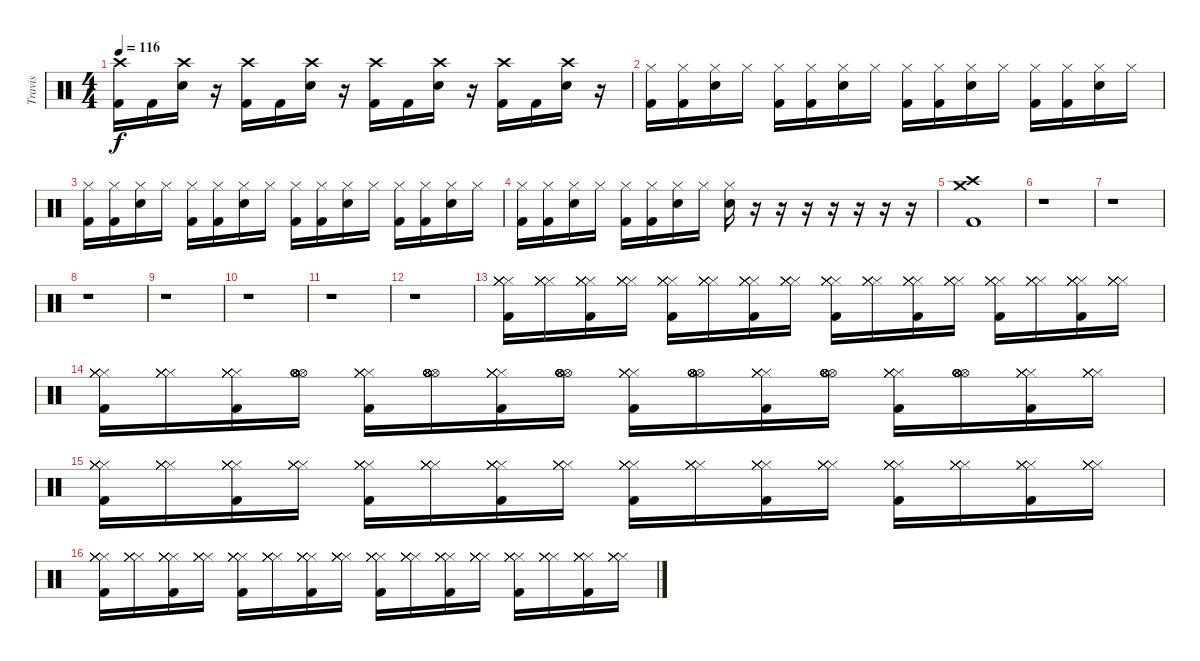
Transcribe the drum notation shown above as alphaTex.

\track ("Travis" "Travis") {instrument percussion}
\staff {score}
\articulation defaults
\ts (4 4)
\tempo 116
\clef neutral
\ks c
("Crash high (hit)" "Kick (hit) 2").16{dy f} "Kick (hit) 2".16 ("Crash high (hit)" "Snare (hit) 2").16 r.16 ("Crash high (hit)" "Kick (hit) 2").16 "Kick (hit) 2".16 ("Crash high (hit)" "Snare (hit) 2").16 r.16 ("Crash high (hit)" "Kick (hit) 2").16 "Kick (hit) 2".16 ("Crash high (hit)" "Snare (hit) 2").16 r.16 ("Crash high (hit)" "Kick (hit) 2").16 "Kick (hit) 2".16 ("Crash high (hit)" "Snare (hit) 2").16 r.16 |
("Hi-Hat (closed)" "Kick (hit) 2").16 ("Hi-Hat (closed)" "Kick (hit) 2").16 ("Hi-Hat (closed)" "Snare (hit) 2").16 "Hi-Hat (closed)".16 ("Hi-Hat (closed)" "Kick (hit) 2").16 ("Hi-Hat (closed)" "Kick (hit) 2").16 ("Hi-Hat (closed)" "Snare (hit) 2").16 "Hi-Hat (closed)".16 ("Hi-Hat (closed)" "Kick (hit) 2").16 ("Hi-Hat (closed)" "Kick (hit) 2").16 ("Hi-Hat (closed)" "Snare (hit) 2").16 "Hi-Hat (closed)".16 ("Hi-Hat (closed)" "Kick (hit) 2").16 ("Hi-Hat (closed)" "Kick (hit) 2").16 ("Hi-Hat (closed)" "Snare (hit) 2").16 "Hi-Hat (closed)".16 |
("Hi-Hat (closed)" "Kick (hit) 2").16 ("Hi-Hat (closed)" "Kick (hit) 2").16 ("Hi-Hat (closed)" "Snare (hit) 2").16 "Hi-Hat (closed)".16 ("Hi-Hat (closed)" "Kick (hit) 2").16 ("Hi-Hat (closed)" "Kick (hit) 2").16 ("Hi-Hat (closed)" "Snare (hit) 2").16 "Hi-Hat (closed)".16 ("Hi-Hat (closed)" "Kick (hit) 2").16 ("Hi-Hat (closed)" "Kick (hit) 2").16 ("Hi-Hat (closed)" "Snare (hit) 2").16 "Hi-Hat (closed)".16 ("Hi-Hat (closed)" "Kick (hit) 2").16 ("Hi-Hat (closed)" "Kick (hit) 2").16 ("Hi-Hat (closed)" "Snare (hit) 2").16 "Hi-Hat (closed)".16 |
("Hi-Hat (closed)" "Kick (hit) 2").16 ("Hi-Hat (closed)" "Kick (hit) 2").16 ("Hi-Hat (closed)" "Snare (hit) 2").16 "Hi-Hat (closed)".16 ("Hi-Hat (closed)" "Kick (hit) 2").16 ("Hi-Hat (closed)" "Kick (hit) 2").16 ("Hi-Hat (closed)" "Snare (hit) 2").16 "Hi-Hat (closed)".16 ("Hi-Hat (closed)" "Snare (hit) 2").16 r.16 r.16 r.16 r.16 r.16 r.16 r.16 |
("Crash high (hit)" "Crash medium (hit)" "Kick (hit) 2").1 |
r.1 |
r.1 |
r.1 |
r.1 |
r.1 |
r.1 |
r.1 |
("Hi-Hat (closed)" "Kick (hit) 2" "Hi-Hat (closed)" "Hi-Hat (closed)" "Hi-Hat (closed)" "Hi-Hat (closed)").16 ("Hi-Hat (closed)" "Hi-Hat (closed)" "Hi-Hat (closed)" "Hi-Hat (closed)" "Hi-Hat (closed)").16 ("Hi-Hat (closed)" "Kick (hit) 2" "Hi-Hat (closed)" "Hi-Hat (closed)" "Hi-Hat (closed)" "Hi-Hat (closed)").16 ("Hi-Hat (closed)" "Hi-Hat (closed)" "Hi-Hat (closed)" "Hi-Hat (closed)" "Hi-Hat (closed)").16 ("Hi-Hat (closed)" "Kick (hit) 2" "Hi-Hat (closed)" "Hi-Hat (closed)" "Hi-Hat (closed)" "Hi-Hat (closed)").16 ("Hi-Hat (closed)" "Hi-Hat (closed)" "Hi-Hat (closed)" "Hi-Hat (closed)" "Hi-Hat (closed)").16 ("Hi-Hat (closed)" "Kick (hit) 2" "Hi-Hat (closed)" "Hi-Hat (closed)" "Hi-Hat (closed)" "Hi-Hat (closed)").16 ("Hi-Hat (closed)" "Hi-Hat (closed)" "Hi-Hat (closed)" "Hi-Hat (closed)" "Hi-Hat (closed)").16 ("Hi-Hat (closed)" "Kick (hit) 2" "Hi-Hat (closed)" "Hi-Hat (closed)" "Hi-Hat (closed)" "Hi-Hat (closed)").16 ("Hi-Hat (closed)" "Hi-Hat (closed)" "Hi-Hat (closed)" "Hi-Hat (closed)" "Hi-Hat (closed)").16 ("Hi-Hat (closed)" "Kick (hit) 2" "Hi-Hat (closed)" "Hi-Hat (closed)" "Hi-Hat (closed)" "Hi-Hat (closed)").16 ("Hi-Hat (closed)" "Hi-Hat (closed)" "Hi-Hat (closed)" "Hi-Hat (closed)" "Hi-Hat (closed)").16 ("Hi-Hat (closed)" "Kick (hit) 2" "Hi-Hat (closed)" "Hi-Hat (closed)" "Hi-Hat (closed)" "Hi-Hat (closed)").16 ("Hi-Hat (closed)" "Hi-Hat (closed)" "Hi-Hat (closed)" "Hi-Hat (closed)" "Hi-Hat (closed)").16 ("Hi-Hat (closed)" "Kick (hit) 2" "Hi-Hat (closed)" "Hi-Hat (closed)" "Hi-Hat (closed)" "Hi-Hat (closed)").16 ("Hi-Hat (closed)" "Hi-Hat (closed)" "Hi-Hat (closed)" "Hi-Hat (closed)" "Hi-Hat (closed)").16 |
("Hi-Hat (closed)" "Kick (hit) 2" "Hi-Hat (closed)" "Hi-Hat (closed)" "Hi-Hat (closed)" "Hi-Hat (closed)").16 ("Hi-Hat (closed)" "Hi-Hat (closed)" "Hi-Hat (closed)" "Hi-Hat (closed)" "Hi-Hat (closed)").16 ("Hi-Hat (closed)" "Kick (hit) 2" "Hi-Hat (closed)" "Hi-Hat (closed)" "Hi-Hat (closed)" "Hi-Hat (closed)").16 ("Hi-Hat (open)" "Hi-Hat (open)" "Hi-Hat (open)" "Hi-Hat (open)" "Hi-Hat (open)" "Hi-Hat (open)").16 ("Hi-Hat (closed)" "Kick (hit) 2" "Hi-Hat (closed)" "Hi-Hat (closed)" "Hi-Hat (closed)" "Hi-Hat (closed)").16 ("Hi-Hat (open)" "Hi-Hat (open)" "Hi-Hat (open)" "Hi-Hat (open)" "Hi-Hat (open)" "Hi-Hat (open)").16 ("Hi-Hat (closed)" "Kick (hit) 2" "Hi-Hat (closed)" "Hi-Hat (closed)" "Hi-Hat (closed)" "Hi-Hat (closed)").16 ("Hi-Hat (open)" "Hi-Hat (open)" "Hi-Hat (open)" "Hi-Hat (open)" "Hi-Hat (open)" "Hi-Hat (open)").16 ("Hi-Hat (closed)" "Kick (hit) 2" "Hi-Hat (closed)" "Hi-Hat (closed)" "Hi-Hat (closed)" "Hi-Hat (closed)").16 ("Hi-Hat (open)" "Hi-Hat (open)" "Hi-Hat (open)" "Hi-Hat (open)" "Hi-Hat (open)" "Hi-Hat (open)").16 ("Hi-Hat (closed)" "Kick (hit) 2" "Hi-Hat (closed)" "Hi-Hat (closed)" "Hi-Hat (closed)" "Hi-Hat (closed)").16 ("Hi-Hat (open)" "Hi-Hat (open)" "Hi-Hat (open)" "Hi-Hat (open)" "Hi-Hat (open)" "Hi-Hat (open)").16 ("Hi-Hat (closed)" "Kick (hit) 2" "Hi-Hat (closed)" "Hi-Hat (closed)" "Hi-Hat (closed)" "Hi-Hat (closed)").16 ("Hi-Hat (open)" "Hi-Hat (open)" "Hi-Hat (open)" "Hi-Hat (open)" "Hi-Hat (open)" "Hi-Hat (open)").16 ("Hi-Hat (closed)" "Kick (hit) 2" "Hi-Hat (closed)" "Hi-Hat (closed)" "Hi-Hat (closed)" "Hi-Hat (closed)").16 ("Hi-Hat (closed)" "Hi-Hat (closed)" "Hi-Hat (closed)" "Hi-Hat (closed)" "Hi-Hat (closed)").16 |
("Hi-Hat (closed)" "Kick (hit) 2" "Hi-Hat (closed)" "Hi-Hat (closed)" "Hi-Hat (closed)" "Hi-Hat (closed)").16 ("Hi-Hat (closed)" "Hi-Hat (closed)" "Hi-Hat (closed)" "Hi-Hat (closed)" "Hi-Hat (closed)").16 ("Hi-Hat (closed)" "Kick (hit) 2" "Hi-Hat (closed)" "Hi-Hat (closed)" "Hi-Hat (closed)" "Hi-Hat (closed)").16 ("Hi-Hat (closed)" "Hi-Hat (closed)" "Hi-Hat (closed)" "Hi-Hat (closed)" "Hi-Hat (closed)").16 ("Hi-Hat (closed)" "Kick (hit) 2" "Hi-Hat (closed)" "Hi-Hat (closed)" "Hi-Hat (closed)" "Hi-Hat (closed)").16 ("Hi-Hat (closed)" "Hi-Hat (closed)" "Hi-Hat (closed)" "Hi-Hat (closed)" "Hi-Hat (closed)").16 ("Hi-Hat (closed)" "Kick (hit) 2" "Hi-Hat (closed)" "Hi-Hat (closed)" "Hi-Hat (closed)" "Hi-Hat (closed)").16 ("Hi-Hat (closed)" "Hi-Hat (closed)" "Hi-Hat (closed)" "Hi-Hat (closed)" "Hi-Hat (closed)").16 ("Hi-Hat (closed)" "Kick (hit) 2" "Hi-Hat (closed)" "Hi-Hat (closed)" "Hi-Hat (closed)" "Hi-Hat (closed)").16 ("Hi-Hat (closed)" "Hi-Hat (closed)" "Hi-Hat (closed)" "Hi-Hat (closed)" "Hi-Hat (closed)").16 ("Hi-Hat (closed)" "Kick (hit) 2" "Hi-Hat (closed)" "Hi-Hat (closed)" "Hi-Hat (closed)" "Hi-Hat (closed)").16 ("Hi-Hat (closed)" "Hi-Hat (closed)" "Hi-Hat (closed)" "Hi-Hat (closed)" "Hi-Hat (closed)").16 ("Hi-Hat (closed)" "Kick (hit) 2" "Hi-Hat (closed)" "Hi-Hat (closed)" "Hi-Hat (closed)" "Hi-Hat (closed)").16 ("Hi-Hat (closed)" "Hi-Hat (closed)" "Hi-Hat (closed)" "Hi-Hat (closed)" "Hi-Hat (closed)").16 ("Hi-Hat (closed)" "Kick (hit) 2" "Hi-Hat (closed)" "Hi-Hat (closed)" "Hi-Hat (closed)" "Hi-Hat (closed)").16 ("Hi-Hat (closed)" "Hi-Hat (closed)" "Hi-Hat (closed)" "Hi-Hat (closed)" "Hi-Hat (closed)").16 |
("Hi-Hat (closed)" "Kick (hit) 2" "Hi-Hat (closed)" "Hi-Hat (closed)" "Hi-Hat (closed)" "Hi-Hat (closed)").16 ("Hi-Hat (closed)" "Hi-Hat (closed)" "Hi-Hat (closed)" "Hi-Hat (closed)" "Hi-Hat (closed)").16 ("Hi-Hat (closed)" "Kick (hit) 2" "Hi-Hat (closed)" "Hi-Hat (closed)" "Hi-Hat (closed)" "Hi-Hat (closed)").16 ("Hi-Hat (closed)" "Hi-Hat (closed)" "Hi-Hat (closed)" "Hi-Hat (closed)" "Hi-Hat (closed)").16 ("Hi-Hat (closed)" "Kick (hit) 2" "Hi-Hat (closed)" "Hi-Hat (closed)" "Hi-Hat (closed)" "Hi-Hat (closed)").16 ("Hi-Hat (closed)" "Hi-Hat (closed)" "Hi-Hat (closed)" "Hi-Hat (closed)" "Hi-Hat (closed)").16 ("Hi-Hat (closed)" "Kick (hit) 2" "Hi-Hat (closed)" "Hi-Hat (closed)" "Hi-Hat (closed)" "Hi-Hat (closed)").16 ("Hi-Hat (closed)" "Hi-Hat (closed)" "Hi-Hat (closed)" "Hi-Hat (closed)" "Hi-Hat (closed)").16 ("Hi-Hat (closed)" "Kick (hit) 2" "Hi-Hat (closed)" "Hi-Hat (closed)" "Hi-Hat (closed)" "Hi-Hat (closed)").16 ("Hi-Hat (closed)" "Hi-Hat (closed)" "Hi-Hat (closed)" "Hi-Hat (closed)" "Hi-Hat (closed)").16 ("Hi-Hat (closed)" "Kick (hit) 2" "Hi-Hat (closed)" "Hi-Hat (closed)" "Hi-Hat (closed)" "Hi-Hat (closed)").16 ("Hi-Hat (closed)" "Hi-Hat (closed)" "Hi-Hat (closed)" "Hi-Hat (closed)" "Hi-Hat (closed)").16 ("Hi-Hat (closed)" "Kick (hit) 2" "Hi-Hat (closed)" "Hi-Hat (closed)" "Hi-Hat (closed)" "Hi-Hat (closed)").16 ("Hi-Hat (closed)" "Hi-Hat (closed)" "Hi-Hat (closed)" "Hi-Hat (closed)" "Hi-Hat (closed)").16 ("Hi-Hat (closed)" "Kick (hit) 2" "Hi-Hat (closed)" "Hi-Hat (closed)" "Hi-Hat (closed)" "Hi-Hat (closed)").16 ("Hi-Hat (closed)" "Hi-Hat (closed)" "Hi-Hat (closed)" "Hi-Hat (closed)" "Hi-Hat (closed)").16
